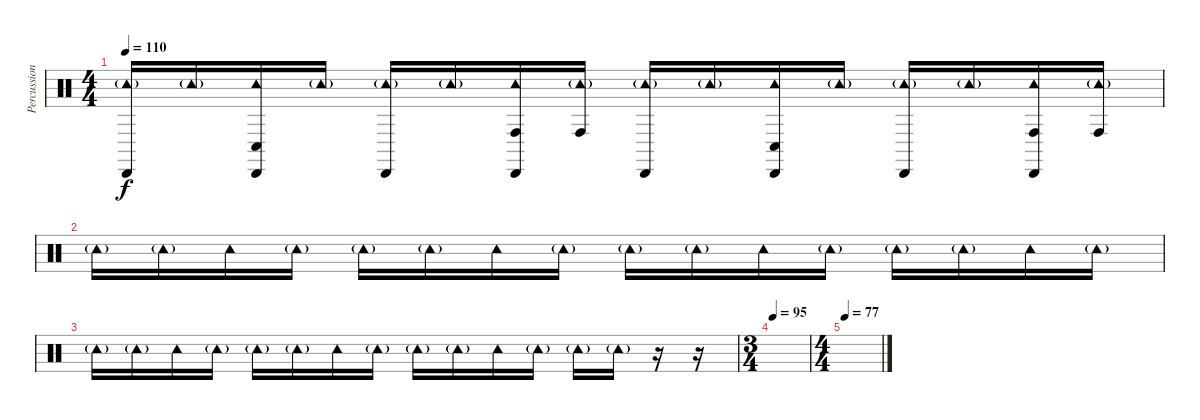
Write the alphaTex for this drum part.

\track ("Percussion" "Percussion") {instrument percussion}
\staff {score}
\articulation defaults
\ts (4 4)
\tempo 110
\clef neutral
\ks c
("Tambourine (hit)"{g} "Cabasa (hit)").16{dy f} "Tambourine (hit)"{g}.16 ("Tambourine (hit)" "Cabasa (hit)" "Conga low (hit)").16 "Tambourine (hit)"{g}.16 ("Tambourine (hit)"{g} "Cabasa (hit)").16 "Tambourine (hit)"{g}.16 ("Tambourine (hit)" "Cabasa (hit)" "Conga high (hit)").16 ("Tambourine (hit)"{g} "Conga high (hit)").16 ("Tambourine (hit)"{g} "Cabasa (hit)").16 "Tambourine (hit)"{g}.16 ("Tambourine (hit)" "Cabasa (hit)" "Conga low (hit)").16 "Tambourine (hit)"{g}.16 ("Tambourine (hit)"{g} "Cabasa (hit)").16 "Tambourine (hit)"{g}.16 ("Tambourine (hit)" "Cabasa (hit)" "Conga high (hit)").16 ("Tambourine (hit)"{g} "Conga high (hit)").16 |
"Tambourine (hit)"{g}.16 "Tambourine (hit)"{g}.16 "Tambourine (hit)".16 "Tambourine (hit)"{g}.16 "Tambourine (hit)"{g}.16 "Tambourine (hit)"{g}.16 "Tambourine (hit)".16 "Tambourine (hit)"{g}.16 "Tambourine (hit)"{g}.16 "Tambourine (hit)"{g}.16 "Tambourine (hit)".16 "Tambourine (hit)"{g}.16 "Tambourine (hit)"{g}.16 "Tambourine (hit)"{g}.16 "Tambourine (hit)".16 "Tambourine (hit)"{g}.16 |
"Tambourine (hit)"{g}.16 "Tambourine (hit)"{g}.16 "Tambourine (hit)".16 "Tambourine (hit)"{g}.16 "Tambourine (hit)"{g}.16 "Tambourine (hit)"{g}.16 "Tambourine (hit)".16 "Tambourine (hit)"{g}.16 "Tambourine (hit)"{g}.16 "Tambourine (hit)"{g}.16 "Tambourine (hit)".16 "Tambourine (hit)"{g}.16 "Tambourine (hit)"{g}.16 "Tambourine (hit)"{g}.16 r.16 r.16 |
\ts (3 4)
\tempo 95
|
\ts (4 4)
\tempo 77
